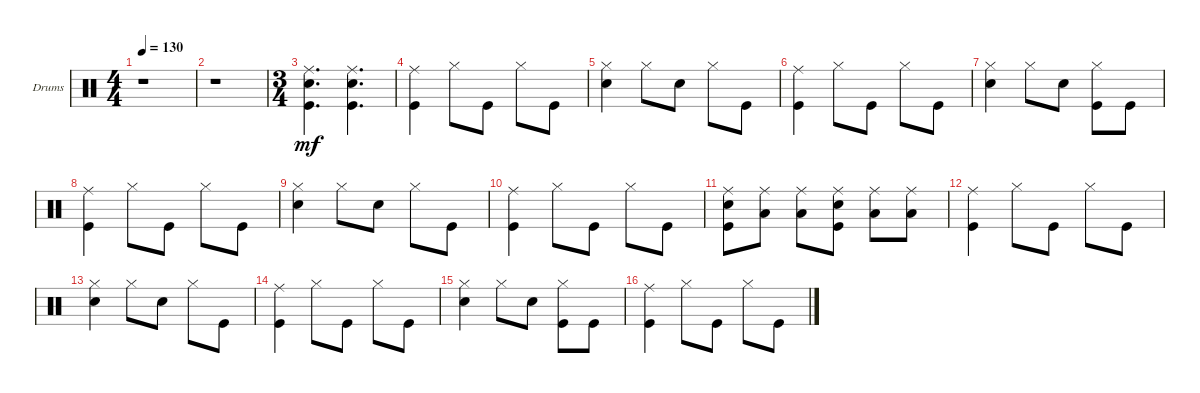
\defaultSystemsLayout 4
\bracketExtendMode groupsimilarinstruments
\firstSystemTrackNameOrientation horizontal
\otherSystemsTrackNameOrientation horizontal
\chordDiagramsInScore
\track ("Drumkit" "Drums") {instrument percussion}
\staff {score}
\articulation defaults
\ts (4 4)
\tempo 130
\clef neutral
\ks c
r.1{dy mf} |
r.1 |
\ts (3 4)
("Snare (hit) 2" "Kick (hit)" "Ride (middle)").4{d} ("Kick (hit)" "Snare (hit) 2" "Ride (middle)").4{d} |
("Kick (hit)" "Ride (middle)").4 "Hi-Hat (closed)".8 "Kick (hit)".8 "Hi-Hat (closed)".8 "Kick (hit)".8 |
("Hi-Hat (closed)" "Snare (hit) 2").4 "Hi-Hat (closed)".8 "Snare (hit) 2".8 "Hi-Hat (closed)".8 "Kick (hit)".8 |
("Kick (hit)" "Ride (middle)").4 "Hi-Hat (closed)".8 "Kick (hit)".8 "Hi-Hat (closed)".8 "Kick (hit)".8 |
("Hi-Hat (closed)" "Snare (hit) 2").4 "Hi-Hat (closed)".8 "Snare (hit) 2".8 ("Kick (hit)" "Hi-Hat (closed)").8 "Kick (hit)".8 |
("Kick (hit)" "Ride (middle)").4 "Hi-Hat (closed)".8 "Kick (hit)".8 "Hi-Hat (closed)".8 "Kick (hit)".8 |
("Hi-Hat (closed)" "Snare (hit) 2").4 "Hi-Hat (closed)".8 "Snare (hit) 2".8 "Hi-Hat (closed)".8 "Kick (hit)".8 |
("Kick (hit)" "Ride (middle)").4 "Hi-Hat (closed)".8 "Kick (hit)".8 "Hi-Hat (closed)".8 "Kick (hit)".8 |
("Snare (hit) 2" "Kick (hit)" "Ride (middle)").8 ("Ride (middle)" "Low Tom (hit)").8 ("Ride (middle)" "Low Tom (hit)").8 ("Kick (hit)" "Snare (hit) 2" "Ride (middle)").8 ("Ride (middle)" "Low Tom (hit)").8 ("Ride (middle)" "Low Tom (hit)").8 |
("Kick (hit)" "Ride (middle)").4 "Hi-Hat (closed)".8 "Kick (hit)".8 "Hi-Hat (closed)".8 "Kick (hit)".8 |
("Hi-Hat (closed)" "Snare (hit) 2").4 "Hi-Hat (closed)".8 "Snare (hit) 2".8 "Hi-Hat (closed)".8 "Kick (hit)".8 |
("Kick (hit)" "Ride (middle)").4 "Hi-Hat (closed)".8 "Kick (hit)".8 "Hi-Hat (closed)".8 "Kick (hit)".8 |
("Hi-Hat (closed)" "Snare (hit) 2").4 "Hi-Hat (closed)".8 "Snare (hit) 2".8 ("Kick (hit)" "Hi-Hat (closed)").8 "Kick (hit)".8 |
("Kick (hit)" "Ride (middle)").4 "Hi-Hat (closed)".8 "Kick (hit)".8 "Hi-Hat (closed)".8 "Kick (hit)".8
